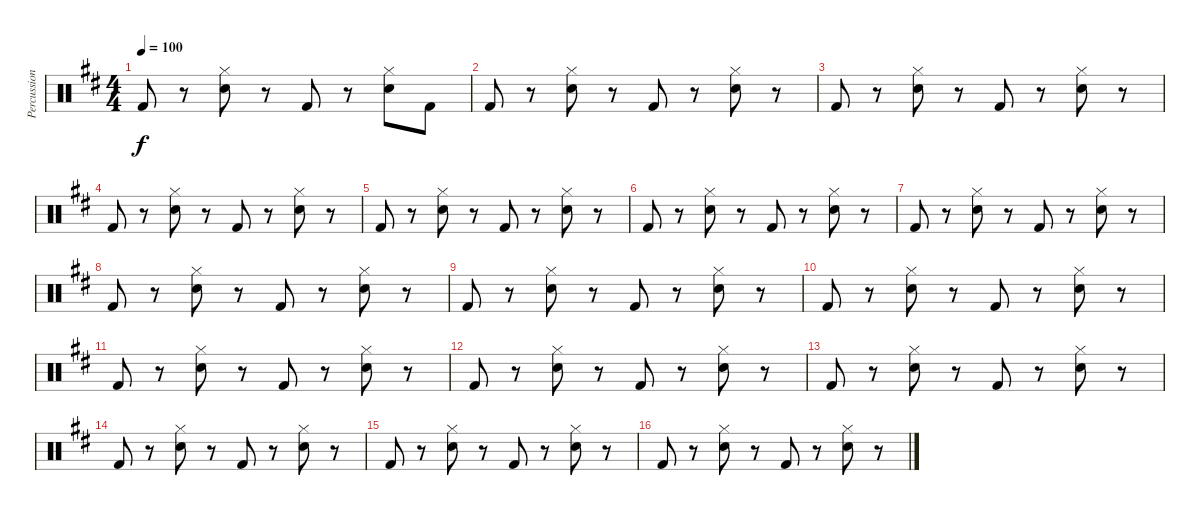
\track ("Percussion" "Percussion") {instrument percussion}
\staff {score}
\articulation defaults
\ts (4 4)
\tempo 100
\clef neutral
\ks d "Kick (hit) 2".8{dy f}
r.8 ("Hi-Hat (closed)" "Snare (hit) 2").8 r.8 "Kick (hit) 2".8 r.8 ("Hi-Hat (closed)" "Snare (hit) 2").8 "Kick (hit) 2".8 |
"Kick (hit) 2".8 r.8 ("Hi-Hat (closed)" "Snare (hit) 2").8 r.8 "Kick (hit) 2".8 r.8 ("Hi-Hat (closed)" "Snare (hit) 2").8 r.8 |
"Kick (hit) 2".8 r.8 ("Hi-Hat (closed)" "Snare (hit) 2").8 r.8 "Kick (hit) 2".8 r.8 ("Hi-Hat (closed)" "Snare (hit) 2").8 r.8 |
"Kick (hit) 2".8 r.8 ("Hi-Hat (closed)" "Snare (hit) 2").8 r.8 "Kick (hit) 2".8 r.8 ("Hi-Hat (closed)" "Snare (hit) 2").8 r.8 |
"Kick (hit) 2".8 r.8 ("Hi-Hat (closed)" "Snare (hit) 2").8 r.8 "Kick (hit) 2".8 r.8 ("Hi-Hat (closed)" "Snare (hit) 2").8 r.8 |
"Kick (hit) 2".8 r.8 ("Hi-Hat (closed)" "Snare (hit) 2").8 r.8 "Kick (hit) 2".8 r.8 ("Hi-Hat (closed)" "Snare (hit) 2").8 r.8 |
"Kick (hit) 2".8 r.8 ("Hi-Hat (closed)" "Snare (hit) 2").8 r.8 "Kick (hit) 2".8 r.8 ("Hi-Hat (closed)" "Snare (hit) 2").8 r.8 |
"Kick (hit) 2".8 r.8 ("Hi-Hat (closed)" "Snare (hit) 2").8 r.8 "Kick (hit) 2".8 r.8 ("Hi-Hat (closed)" "Snare (hit) 2").8 r.8 |
"Kick (hit) 2".8 r.8 ("Hi-Hat (closed)" "Snare (hit) 2").8 r.8 "Kick (hit) 2".8 r.8 ("Hi-Hat (closed)" "Snare (hit) 2").8 r.8 |
"Kick (hit) 2".8 r.8 ("Hi-Hat (closed)" "Snare (hit) 2").8 r.8 "Kick (hit) 2".8 r.8 ("Hi-Hat (closed)" "Snare (hit) 2").8 r.8 |
"Kick (hit) 2".8 r.8 ("Hi-Hat (closed)" "Snare (hit) 2").8 r.8 "Kick (hit) 2".8 r.8 ("Hi-Hat (closed)" "Snare (hit) 2").8 r.8 |
"Kick (hit) 2".8 r.8 ("Hi-Hat (closed)" "Snare (hit) 2").8 r.8 "Kick (hit) 2".8 r.8 ("Hi-Hat (closed)" "Snare (hit) 2").8 r.8 |
"Kick (hit) 2".8 r.8 ("Hi-Hat (closed)" "Snare (hit) 2").8 r.8 "Kick (hit) 2".8 r.8 ("Hi-Hat (closed)" "Snare (hit) 2").8 r.8 |
"Kick (hit) 2".8 r.8 ("Hi-Hat (closed)" "Snare (hit) 2").8 r.8 "Kick (hit) 2".8 r.8 ("Hi-Hat (closed)" "Snare (hit) 2").8 r.8 |
"Kick (hit) 2".8 r.8 ("Hi-Hat (closed)" "Snare (hit) 2").8 r.8 "Kick (hit) 2".8 r.8 ("Hi-Hat (closed)" "Snare (hit) 2").8 r.8 |
"Kick (hit) 2".8 r.8 ("Hi-Hat (closed)" "Snare (hit) 2").8 r.8 "Kick (hit) 2".8 r.8 ("Hi-Hat (closed)" "Snare (hit) 2").8 r.8
